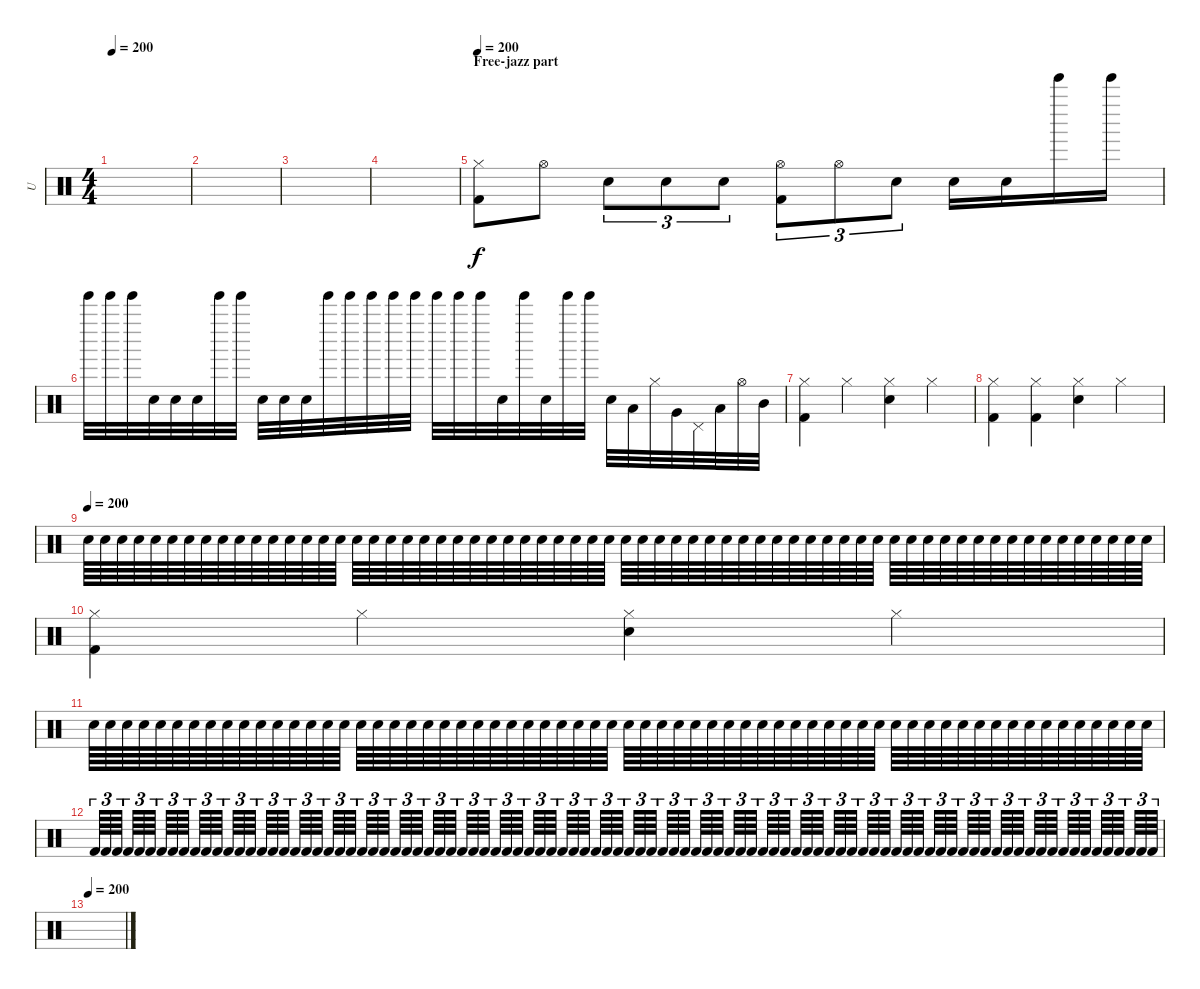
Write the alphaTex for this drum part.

\track ("U" "U") {instrument percussion}
\staff {score}
\articulation defaults
\ts (4 4)
\tempo 200
\clef neutral
\ks c
|
|
|
|
\section ("" "Free-jazz part")
\tempo 200
("Hi-Hat (closed)" "Kick (hit) 2").8 "Hi-Hat (open)".8 "Electric Snare (hit)".8{tu (3 2)} "Electric Snare (hit)".8{tu (3 2)} "Electric Snare (hit)".8{tu (3 2)} ("Hi-Hat (open)" "Kick (hit) 2").8{tu (3 2)} "Hi-Hat (open)".8{tu (3 2)} "Electric Snare (hit)".8{tu (3 2)} "Electric Snare (hit)".16 "Electric Snare (hit)".16 "Tinkle Bell (hit)".16 "Tinkle Bell (hit)".16 |
"Tinkle Bell (hit)".32 "Tinkle Bell (hit)".32 "Tinkle Bell (hit)".32 "Snare (hit) 2".32 "Snare (hit) 2".32 "Snare (hit)".32 "Tinkle Bell (hit)".32 "Tinkle Bell (hit)".32 "Snare (hit)".32 "Snare (hit) 2".32 "Snare (hit)".32 "Tinkle Bell (hit)".32 "Tinkle Bell (hit)".32 "Tinkle Bell (hit)".32 "Tinkle Bell (hit)".32 "Tinkle Bell (hit)".32 "Tinkle Bell (hit)".32 "Tinkle Bell (hit)".32 "Tinkle Bell (hit)".32 "Snare (hit) 2".32 "Tinkle Bell (hit)".32 "Snare (hit) 2".32 "Tinkle Bell (hit)".32 "Tinkle Bell (hit)".32 "Electric Snare (hit)".32 "Low Floor Tom (hit)".32 "Hi-Hat (closed)".32 "Very Low Tom (hit)".32 "Pedal Hi-Hat (hit)".32 "Low Tom (hit)".32 "Hi-Hat (open)".32 "Mid Tom (hit)".32 |
("Hi-Hat (closed)" "Kick (hit) 2").4 "Hi-Hat (closed)".4 ("Hi-Hat (closed)" "Electric Snare (hit)").4 "Hi-Hat (closed)".4 |
("Hi-Hat (closed)" "Kick (hit) 2").4 ("Hi-Hat (closed)" "Kick (hit) 2").4 ("Hi-Hat (closed)" "Electric Snare (hit)").4 "Hi-Hat (closed)".4 |
\tempo (200)
"Electric Snare (hit)".64 "Electric Snare (hit)".64 "Electric Snare (hit)".64 "Electric Snare (hit)".64 "Electric Snare (hit)".64 "Electric Snare (hit)".64 "Electric Snare (hit)".64 "Electric Snare (hit)".64 "Electric Snare (hit)".64 "Electric Snare (hit)".64 "Electric Snare (hit)".64 "Electric Snare (hit)".64 "Electric Snare (hit)".64 "Electric Snare (hit)".64 "Electric Snare (hit)".64 "Electric Snare (hit)".64 "Electric Snare (hit)".64 "Electric Snare (hit)".64 "Electric Snare (hit)".64 "Electric Snare (hit)".64 "Electric Snare (hit)".64 "Electric Snare (hit)".64 "Electric Snare (hit)".64 "Electric Snare (hit)".64 "Electric Snare (hit)".64 "Electric Snare (hit)".64 "Electric Snare (hit)".64 "Electric Snare (hit)".64 "Electric Snare (hit)".64 "Electric Snare (hit)".64 "Electric Snare (hit)".64 "Electric Snare (hit)".64 "Electric Snare (hit)".64 "Electric Snare (hit)".64 "Electric Snare (hit)".64 "Electric Snare (hit)".64 "Electric Snare (hit)".64 "Electric Snare (hit)".64 "Electric Snare (hit)".64 "Electric Snare (hit)".64 "Electric Snare (hit)".64 "Electric Snare (hit)".64 "Electric Snare (hit)".64 "Electric Snare (hit)".64 "Electric Snare (hit)".64 "Electric Snare (hit)".64 "Electric Snare (hit)".64 "Electric Snare (hit)".64 "Electric Snare (hit)".64 "Electric Snare (hit)".64 "Electric Snare (hit)".64 "Electric Snare (hit)".64 "Electric Snare (hit)".64 "Electric Snare (hit)".64 "Electric Snare (hit)".64 "Electric Snare (hit)".64 "Electric Snare (hit)".64 "Electric Snare (hit)".64 "Electric Snare (hit)".64 "Electric Snare (hit)".64 "Electric Snare (hit)".64 "Electric Snare (hit)".64 "Electric Snare (hit)".64 "Electric Snare (hit)".64 |
("Hi-Hat (closed)" "Kick (hit) 2").4 "Hi-Hat (closed)".4 ("Hi-Hat (closed)" "Electric Snare (hit)").4 "Hi-Hat (closed)".4 |
"Electric Snare (hit)".64 "Electric Snare (hit)".64 "Electric Snare (hit)".64 "Electric Snare (hit)".64 "Electric Snare (hit)".64 "Electric Snare (hit)".64 "Electric Snare (hit)".64 "Electric Snare (hit)".64 "Electric Snare (hit)".64 "Electric Snare (hit)".64 "Electric Snare (hit)".64 "Electric Snare (hit)".64 "Electric Snare (hit)".64 "Electric Snare (hit)".64 "Electric Snare (hit)".64 "Electric Snare (hit)".64 "Electric Snare (hit)".64 "Electric Snare (hit)".64 "Electric Snare (hit)".64 "Electric Snare (hit)".64 "Electric Snare (hit)".64 "Electric Snare (hit)".64 "Electric Snare (hit)".64 "Electric Snare (hit)".64 "Electric Snare (hit)".64 "Electric Snare (hit)".64 "Electric Snare (hit)".64 "Electric Snare (hit)".64 "Electric Snare (hit)".64 "Electric Snare (hit)".64 "Electric Snare (hit)".64 "Electric Snare (hit)".64 "Electric Snare (hit)".64 "Electric Snare (hit)".64 "Electric Snare (hit)".64 "Electric Snare (hit)".64 "Electric Snare (hit)".64 "Electric Snare (hit)".64 "Electric Snare (hit)".64 "Electric Snare (hit)".64 "Electric Snare (hit)".64 "Electric Snare (hit)".64 "Electric Snare (hit)".64 "Electric Snare (hit)".64 "Electric Snare (hit)".64 "Electric Snare (hit)".64 "Electric Snare (hit)".64 "Electric Snare (hit)".64 "Electric Snare (hit)".64 "Electric Snare (hit)".64 "Electric Snare (hit)".64 "Electric Snare (hit)".64 "Electric Snare (hit)".64 "Electric Snare (hit)".64 "Electric Snare (hit)".64 "Electric Snare (hit)".64 "Electric Snare (hit)".64 "Electric Snare (hit)".64 "Electric Snare (hit)".64 "Electric Snare (hit)".64 "Electric Snare (hit)".64 "Electric Snare (hit)".64 "Electric Snare (hit)".64 "Electric Snare (hit)".64 |
"Kick (hit) 2".64{tu (3 2)} "Kick (hit) 2".64{tu (3 2)} "Kick (hit) 2".64{tu (3 2)} "Kick (hit) 2".64{tu (3 2)} "Kick (hit) 2".64{tu (3 2)} "Kick (hit) 2".64{tu (3 2)} "Kick (hit) 2".64{tu (3 2)} "Kick (hit) 2".64{tu (3 2)} "Kick (hit) 2".64{tu (3 2)} "Kick (hit) 2".64{tu (3 2)} "Kick (hit) 2".64{tu (3 2)} "Kick (hit) 2".64{tu (3 2)} "Kick (hit) 2".64{tu (3 2)} "Kick (hit) 2".64{tu (3 2)} "Kick (hit) 2".64{tu (3 2)} "Kick (hit) 2".64{tu (3 2)} "Kick (hit) 2".64{tu (3 2)} "Kick (hit) 2".64{tu (3 2)} "Kick (hit) 2".64{tu (3 2)} "Kick (hit) 2".64{tu (3 2)} "Kick (hit) 2".64{tu (3 2)} "Kick (hit) 2".64{tu (3 2)} "Kick (hit) 2".64{tu (3 2)} "Kick (hit) 2".64{tu (3 2)} "Kick (hit) 2".64{tu (3 2)} "Kick (hit) 2".64{tu (3 2)} "Kick (hit) 2".64{tu (3 2)} "Kick (hit) 2".64{tu (3 2)} "Kick (hit) 2".64{tu (3 2)} "Kick (hit) 2".64{tu (3 2)} "Kick (hit) 2".64{tu (3 2)} "Kick (hit) 2".64{tu (3 2)} "Kick (hit) 2".64{tu (3 2)} "Kick (hit) 2".64{tu (3 2)} "Kick (hit) 2".64{tu (3 2)} "Kick (hit) 2".64{tu (3 2)} "Kick (hit) 2".64{tu (3 2)} "Kick (hit) 2".64{tu (3 2)} "Kick (hit) 2".64{tu (3 2)} "Kick (hit) 2".64{tu (3 2)} "Kick (hit) 2".64{tu (3 2)} "Kick (hit) 2".64{tu (3 2)} "Kick (hit) 2".64{tu (3 2)} "Kick (hit) 2".64{tu (3 2)} "Kick (hit) 2".64{tu (3 2)} "Kick (hit) 2".64{tu (3 2)} "Kick (hit) 2".64{tu (3 2)} "Kick (hit) 2".64{tu (3 2)} "Kick (hit) 2".64{tu (3 2)} "Kick (hit) 2".64{tu (3 2)} "Kick (hit) 2".64{tu (3 2)} "Kick (hit) 2".64{tu (3 2)} "Kick (hit) 2".64{tu (3 2)} "Kick (hit) 2".64{tu (3 2)} "Kick (hit) 2".64{tu (3 2)} "Kick (hit) 2".64{tu (3 2)} "Kick (hit) 2".64{tu (3 2)} "Kick (hit) 2".64{tu (3 2)} "Kick (hit) 2".64{tu (3 2)} "Kick (hit) 2".64{tu (3 2)} "Kick (hit) 2".64{tu (3 2)} "Kick (hit) 2".64{tu (3 2)} "Kick (hit) 2".64{tu (3 2)} "Kick (hit) 2".64{tu (3 2)} "Kick (hit) 2".64{tu (3 2)} "Kick (hit) 2".64{tu (3 2)} "Kick (hit) 2".64{tu (3 2)} "Kick (hit) 2".64{tu (3 2)} "Kick (hit) 2".64{tu (3 2)} "Kick (hit) 2".64{tu (3 2)} "Kick (hit) 2".64{tu (3 2)} "Kick (hit) 2".64{tu (3 2)} "Kick (hit) 2".64{tu (3 2)} "Kick (hit) 2".64{tu (3 2)} "Kick (hit) 2".64{tu (3 2)} "Kick (hit) 2".64{tu (3 2)} "Kick (hit) 2".64{tu (3 2)} "Kick (hit) 2".64{tu (3 2)} "Kick (hit) 2".64{tu (3 2)} "Kick (hit) 2".64{tu (3 2)} "Kick (hit) 2".64{tu (3 2)} "Kick (hit) 2".64{tu (3 2)} "Kick (hit) 2".64{tu (3 2)} "Kick (hit) 2".64{tu (3 2)} "Kick (hit) 2".64{tu (3 2)} "Kick (hit) 2".64{tu (3 2)} "Kick (hit) 2".64{tu (3 2)} "Kick (hit) 2".64{tu (3 2)} "Kick (hit) 2".64{tu (3 2)} "Kick (hit) 2".64{tu (3 2)} "Kick (hit) 2".64{tu (3 2)} "Kick (hit) 2".64{tu (3 2)} "Kick (hit) 2".64{tu (3 2)} "Kick (hit) 2".64{tu (3 2)} "Kick (hit) 2".64{tu (3 2)} "Kick (hit) 2".64{tu (3 2)} |
\tempo 200
